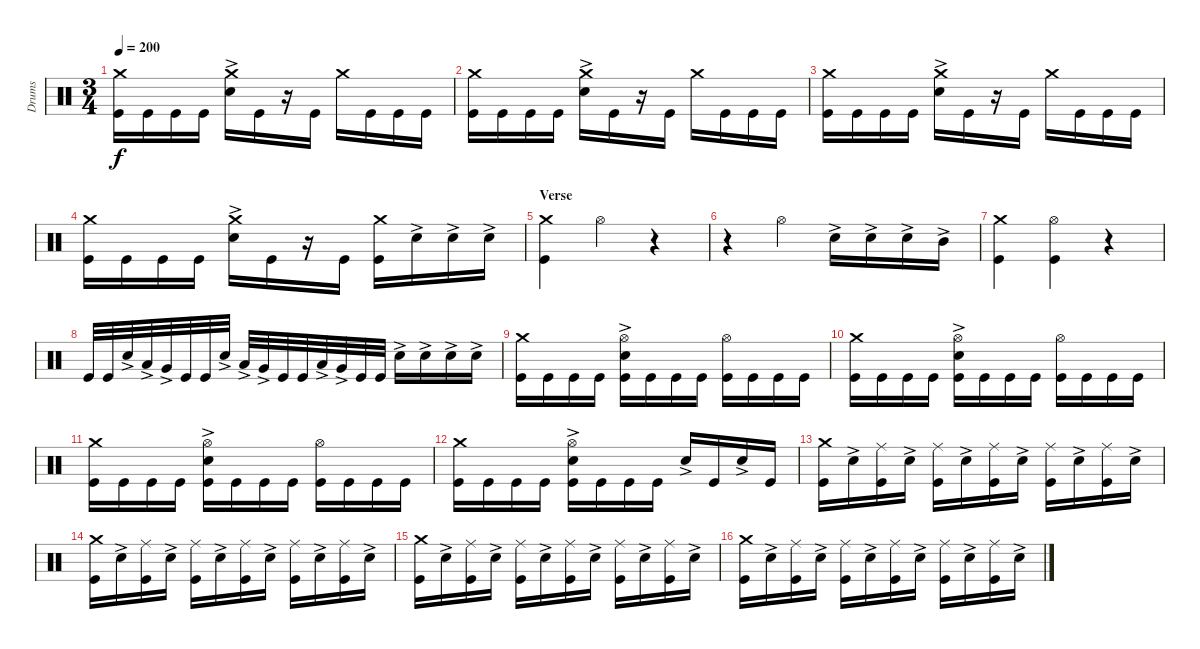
\track ("Drums" "Drums") {instrument percussion}
\staff {score}
\articulation defaults
\ts (3 4)
\tempo 200
\clef neutral
\ks c
("Crash medium (hit)" "Kick (hit)").16{dy f} "Kick (hit)".16 "Kick (hit)".16 "Kick (hit)".16 ("Crash medium (hit)" "Snare (hit) 2"{ac}).16 "Kick (hit)".16 r.16 "Kick (hit)".16 "Crash medium (hit)".16 "Kick (hit)".16 "Kick (hit)".16 "Kick (hit)".16 |
("Crash medium (hit)" "Kick (hit)").16 "Kick (hit)".16 "Kick (hit)".16 "Kick (hit)".16 ("Crash medium (hit)" "Snare (hit) 2"{ac}).16 "Kick (hit)".16 r.16 "Kick (hit)".16 "Crash medium (hit)".16 "Kick (hit)".16 "Kick (hit)".16 "Kick (hit)".16 |
("Crash medium (hit)" "Kick (hit)").16 "Kick (hit)".16 "Kick (hit)".16 "Kick (hit)".16 ("Crash medium (hit)" "Snare (hit) 2"{ac}).16 "Kick (hit)".16 r.16 "Kick (hit)".16 "Crash medium (hit)".16 "Kick (hit)".16 "Kick (hit)".16 "Kick (hit)".16 |
("Crash medium (hit)" "Kick (hit)").16 "Kick (hit)".16 "Kick (hit)".16 "Kick (hit)".16 ("Crash medium (hit)" "Snare (hit) 2"{ac}).16 "Kick (hit)".16 r.16 "Kick (hit)".16 ("Kick (hit)" "Crash medium (hit)").16 "Snare (hit) 2"{ac}.16 "Snare (hit) 2"{ac}.16 "Snare (hit) 2"{ac}.16 |
\section ("" "Verse")
("Kick (hit)" "Crash medium (hit)").4 "Hi-Hat (open)".4 r.4 |
r.4 "Hi-Hat (open)".4 "Snare (hit) 2"{ac}.16 "Snare (hit) 2"{ac}.16 "Snare (hit) 2"{ac}.16 "Mid Tom (hit)"{ac}.16 |
("Kick (hit)" "Crash medium (hit)").4 ("Hi-Hat (open)" "Kick (hit)").4 r.4 |
"Kick (hit)".32 "Kick (hit)".32 "Snare (hit) 2"{ac}.32 "Low Tom (hit)"{ac}.32 "Very Low Tom (hit)"{ac}.32 "Kick (hit)".32 "Kick (hit)".32 "Snare (hit) 2"{ac}.32 "Low Tom (hit)"{ac}.32 "Very Low Tom (hit)"{ac}.32 "Kick (hit)".32 "Kick (hit)".32 "Low Tom (hit)"{ac}.32 "Very Low Tom (hit)"{ac}.32 "Kick (hit)".32 "Kick (hit)".32 "Snare (hit) 2"{ac}.16 "Snare (hit) 2"{ac}.16 "Snare (hit) 2"{ac}.16 "Snare (hit) 2"{ac}.16 |
("Kick (hit)" "Crash medium (hit)").16 "Kick (hit)".16 "Kick (hit)".16 "Kick (hit)".16 ("Kick (hit)" "Hi-Hat (open)" "Snare (hit) 2"{ac}).16 "Kick (hit)".16 "Kick (hit)".16 "Kick (hit)".16 ("Kick (hit)" "Hi-Hat (open)").16 "Kick (hit)".16 "Kick (hit)".16 "Kick (hit)".16 |
("Kick (hit)" "Crash medium (hit)").16 "Kick (hit)".16 "Kick (hit)".16 "Kick (hit)".16 ("Kick (hit)" "Hi-Hat (open)" "Snare (hit) 2"{ac}).16 "Kick (hit)".16 "Kick (hit)".16 "Kick (hit)".16 ("Kick (hit)" "Hi-Hat (open)").16 "Kick (hit)".16 "Kick (hit)".16 "Kick (hit)".16 |
("Kick (hit)" "Crash medium (hit)").16 "Kick (hit)".16 "Kick (hit)".16 "Kick (hit)".16 ("Kick (hit)" "Hi-Hat (open)" "Snare (hit) 2"{ac}).16 "Kick (hit)".16 "Kick (hit)".16 "Kick (hit)".16 ("Kick (hit)" "Hi-Hat (open)").16 "Kick (hit)".16 "Kick (hit)".16 "Kick (hit)".16 |
("Kick (hit)" "Crash medium (hit)").16 "Kick (hit)".16 "Kick (hit)".16 "Kick (hit)".16 ("Kick (hit)" "Hi-Hat (open)" "Snare (hit) 2"{ac}).16 "Kick (hit)".16 "Kick (hit)".16 "Kick (hit)".16 "Snare (hit) 2"{ac}.16 "Kick (hit)".16 "Snare (hit) 2"{ac}.16 "Kick (hit)".16 |
("Kick (hit)" "Crash medium (hit)").16 "Snare (hit) 2"{ac}.16 ("Kick (hit)" "Ride (middle)").16 "Snare (hit) 2"{ac}.16 ("Kick (hit)" "Ride (middle)").16 "Snare (hit) 2"{ac}.16 ("Kick (hit)" "Ride (middle)").16 "Snare (hit) 2"{ac}.16 ("Kick (hit)" "Ride (middle)").16 "Snare (hit) 2"{ac}.16 ("Kick (hit)" "Ride (middle)").16 "Snare (hit) 2"{ac}.16 |
("Kick (hit)" "Crash medium (hit)").16 "Snare (hit) 2"{ac}.16 ("Kick (hit)" "Ride (middle)").16 "Snare (hit) 2"{ac}.16 ("Kick (hit)" "Ride (middle)").16 "Snare (hit) 2"{ac}.16 ("Kick (hit)" "Ride (middle)").16 "Snare (hit) 2"{ac}.16 ("Kick (hit)" "Ride (middle)").16 "Snare (hit) 2"{ac}.16 ("Kick (hit)" "Ride (middle)").16 "Snare (hit) 2"{ac}.16 |
("Kick (hit)" "Crash medium (hit)").16 "Snare (hit) 2"{ac}.16 ("Kick (hit)" "Ride (middle)").16 "Snare (hit) 2"{ac}.16 ("Kick (hit)" "Ride (middle)").16 "Snare (hit) 2"{ac}.16 ("Kick (hit)" "Ride (middle)").16 "Snare (hit) 2"{ac}.16 ("Kick (hit)" "Ride (middle)").16 "Snare (hit) 2"{ac}.16 ("Kick (hit)" "Ride (middle)").16 "Snare (hit) 2"{ac}.16 |
("Kick (hit)" "Crash medium (hit)").16 "Snare (hit) 2"{ac}.16 ("Kick (hit)" "Ride (middle)").16 "Snare (hit) 2"{ac}.16 ("Kick (hit)" "Ride (middle)").16 "Snare (hit) 2"{ac}.16 ("Kick (hit)" "Ride (middle)").16 "Snare (hit) 2"{ac}.16 ("Kick (hit)" "Ride (middle)").16 "Snare (hit) 2"{ac}.16 ("Kick (hit)" "Ride (middle)").16 "Snare (hit) 2"{ac}.16
